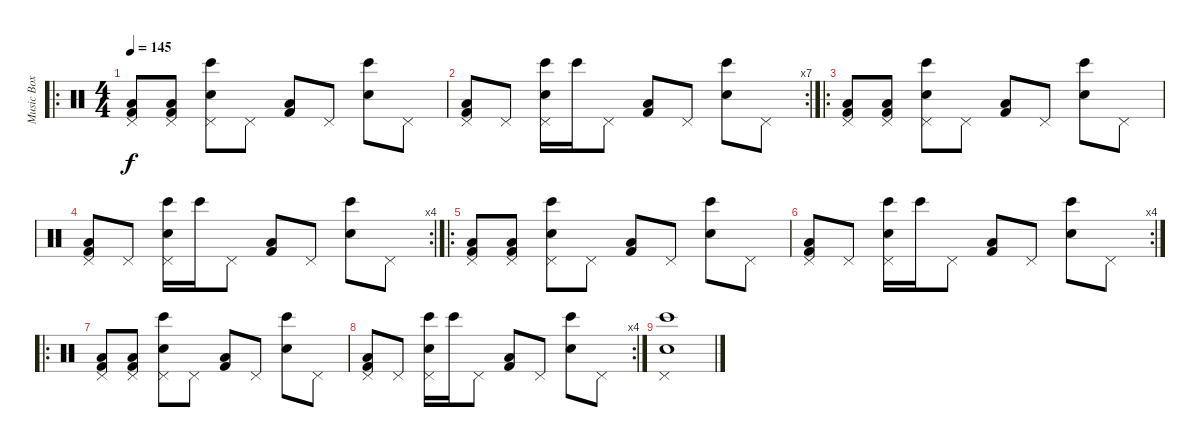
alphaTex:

\track ("Music Box" "Music Box") {instrument percussion}
\staff {score}
\articulation defaults
\ro
\ts (4 4)
\tempo 145
\clef neutral
\ks c
("Pedal Hi-Hat (hit)" "Kick (hit) 2" "Low Floor Tom (hit)").8{dy f} ("Pedal Hi-Hat (hit)" "Kick (hit) 2" "Low Floor Tom (hit)").8 ("Pedal Hi-Hat (hit)" "Snare (hit) 2" "Bongo High (hit)").8 "Pedal Hi-Hat (hit)".8 ("Kick (hit) 2" "Low Floor Tom (hit)").8 "Pedal Hi-Hat (hit)".8 ("Snare (hit) 2" "Bongo High (hit)").8 "Pedal Hi-Hat (hit)".8 |
\rc 7
("Pedal Hi-Hat (hit)" "Kick (hit) 2" "Low Floor Tom (hit)").8 "Pedal Hi-Hat (hit)".8 ("Pedal Hi-Hat (hit)" "Snare (hit) 2" "Bongo High (hit)").16 "Bongo High (hit)".16 "Pedal Hi-Hat (hit)".8 ("Kick (hit) 2" "Low Floor Tom (hit)").8 "Pedal Hi-Hat (hit)".8 ("Snare (hit) 2" "Bongo High (hit)").8 "Pedal Hi-Hat (hit)".8 |
\ro
("Pedal Hi-Hat (hit)" "Kick (hit) 2" "Low Floor Tom (hit)").8 ("Pedal Hi-Hat (hit)" "Kick (hit) 2" "Low Floor Tom (hit)").8 ("Pedal Hi-Hat (hit)" "Snare (hit) 2" "Bongo High (hit)").8 "Pedal Hi-Hat (hit)".8 ("Kick (hit) 2" "Low Floor Tom (hit)").8 "Pedal Hi-Hat (hit)".8 ("Snare (hit) 2" "Bongo High (hit)").8 "Pedal Hi-Hat (hit)".8 |
\rc 4
("Pedal Hi-Hat (hit)" "Kick (hit) 2" "Low Floor Tom (hit)").8 "Pedal Hi-Hat (hit)".8 ("Pedal Hi-Hat (hit)" "Snare (hit) 2" "Bongo High (hit)").16 "Bongo High (hit)".16 "Pedal Hi-Hat (hit)".8 ("Kick (hit) 2" "Low Floor Tom (hit)").8 "Pedal Hi-Hat (hit)".8 ("Snare (hit) 2" "Bongo High (hit)").8 "Pedal Hi-Hat (hit)".8 |
\ro
("Pedal Hi-Hat (hit)" "Kick (hit) 2" "Low Floor Tom (hit)").8 ("Pedal Hi-Hat (hit)" "Kick (hit) 2" "Low Floor Tom (hit)").8 ("Pedal Hi-Hat (hit)" "Snare (hit) 2" "Bongo High (hit)").8 "Pedal Hi-Hat (hit)".8 ("Kick (hit) 2" "Low Floor Tom (hit)").8 "Pedal Hi-Hat (hit)".8 ("Snare (hit) 2" "Bongo High (hit)").8 "Pedal Hi-Hat (hit)".8 |
\rc 4
("Pedal Hi-Hat (hit)" "Kick (hit) 2" "Low Floor Tom (hit)").8 "Pedal Hi-Hat (hit)".8 ("Pedal Hi-Hat (hit)" "Snare (hit) 2" "Bongo High (hit)").16 "Bongo High (hit)".16 "Pedal Hi-Hat (hit)".8 ("Kick (hit) 2" "Low Floor Tom (hit)").8 "Pedal Hi-Hat (hit)".8 ("Snare (hit) 2" "Bongo High (hit)").8 "Pedal Hi-Hat (hit)".8 |
\ro
("Pedal Hi-Hat (hit)" "Kick (hit) 2" "Low Floor Tom (hit)").8 ("Pedal Hi-Hat (hit)" "Kick (hit) 2" "Low Floor Tom (hit)").8 ("Pedal Hi-Hat (hit)" "Snare (hit) 2" "Bongo High (hit)").8 "Pedal Hi-Hat (hit)".8 ("Kick (hit) 2" "Low Floor Tom (hit)").8 "Pedal Hi-Hat (hit)".8 ("Snare (hit) 2" "Bongo High (hit)").8 "Pedal Hi-Hat (hit)".8 |
\rc 4
("Pedal Hi-Hat (hit)" "Kick (hit) 2" "Low Floor Tom (hit)").8 "Pedal Hi-Hat (hit)".8 ("Pedal Hi-Hat (hit)" "Snare (hit) 2" "Bongo High (hit)").16 "Bongo High (hit)".16 "Pedal Hi-Hat (hit)".8 ("Kick (hit) 2" "Low Floor Tom (hit)").8 "Pedal Hi-Hat (hit)".8 ("Snare (hit) 2" "Bongo High (hit)").8 "Pedal Hi-Hat (hit)".8 |
("Pedal Hi-Hat (hit)" "Snare (hit) 2" "Bongo High (hit)").1
